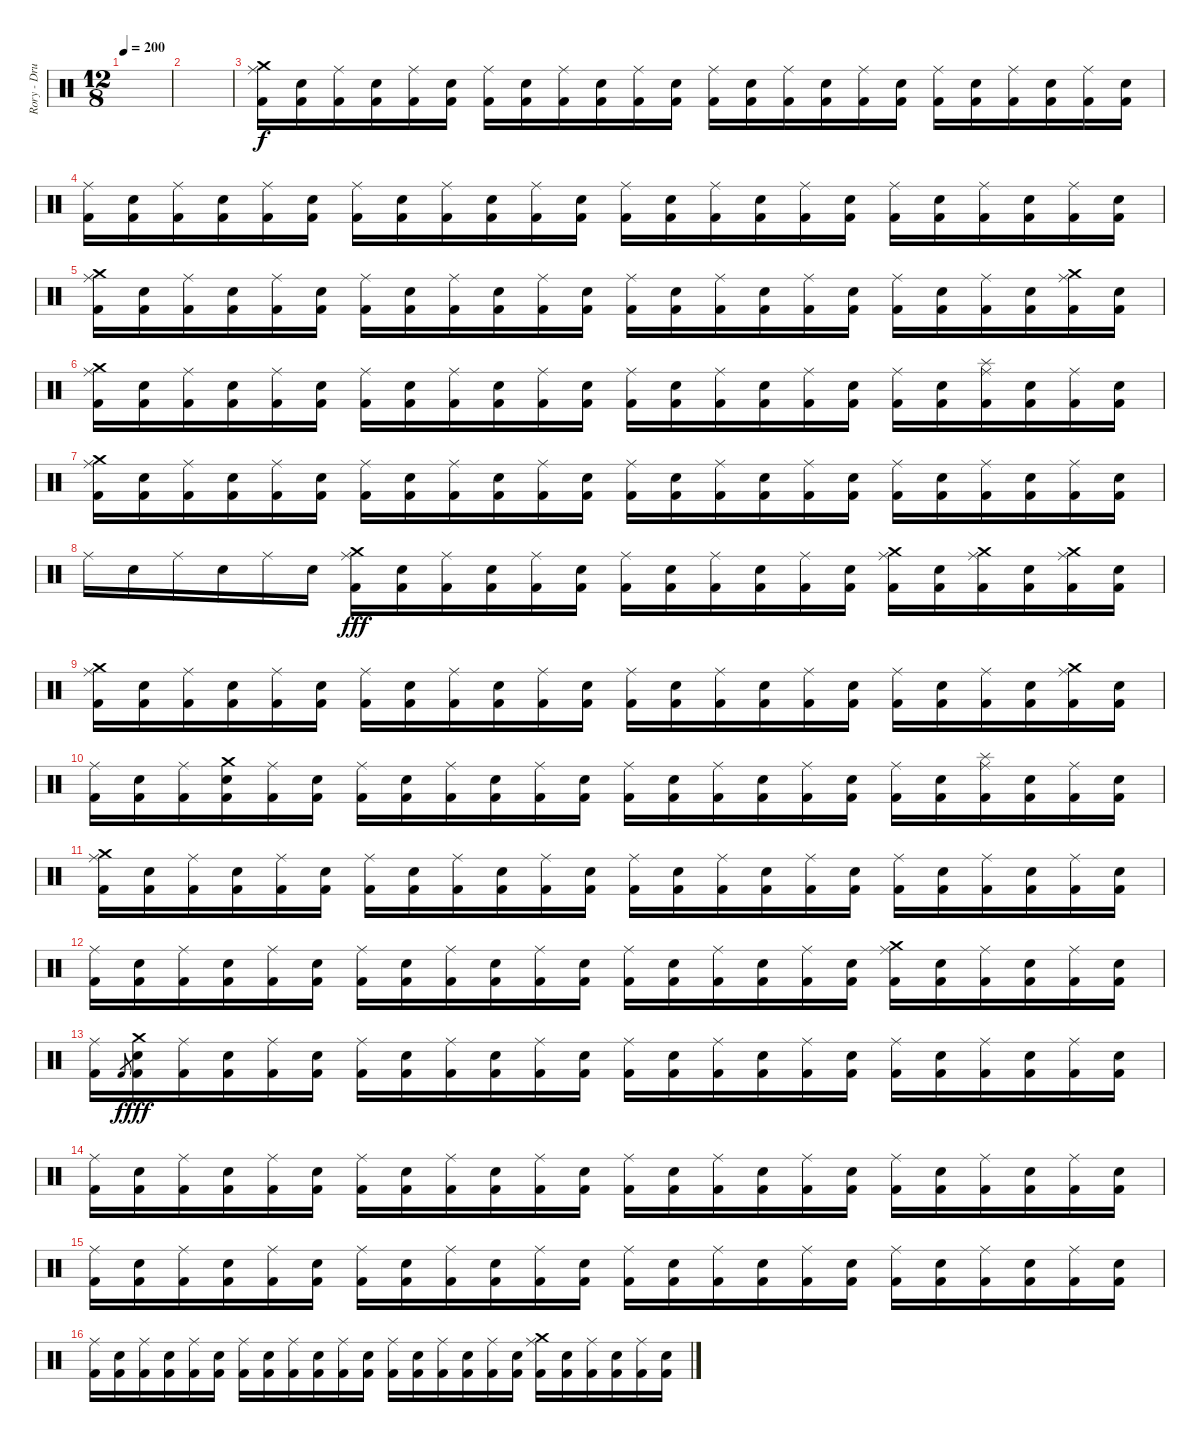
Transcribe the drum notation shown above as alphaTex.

\track ("Rory - Drums" "Rory - Dru") {instrument percussion}
\staff {score}
\articulation defaults
\ts (12 8)
\tempo 200
\clef neutral
\ks c
|
|
("Kick (hit) 2" "Crash medium (hit)" "Ride (middle)").16 ("Kick (hit) 2" "Electric Snare (hit)").16 ("Kick (hit) 2" "Ride (middle)").16 ("Kick (hit) 2" "Electric Snare (hit)").16 ("Kick (hit) 2" "Ride (middle)").16 ("Kick (hit) 2" "Electric Snare (hit)").16 ("Kick (hit) 2" "Ride (middle)").16 ("Kick (hit) 2" "Electric Snare (hit)").16 ("Kick (hit) 2" "Ride (middle)").16 ("Kick (hit) 2" "Electric Snare (hit)").16 ("Kick (hit) 2" "Ride (middle)").16 ("Kick (hit) 2" "Electric Snare (hit)").16 ("Kick (hit) 2" "Ride (middle)").16 ("Kick (hit) 2" "Electric Snare (hit)").16 ("Kick (hit) 2" "Ride (middle)").16 ("Kick (hit) 2" "Electric Snare (hit)").16 ("Kick (hit) 2" "Ride (middle)").16 ("Kick (hit) 2" "Electric Snare (hit)").16 ("Kick (hit) 2" "Ride (middle)").16 ("Kick (hit) 2" "Electric Snare (hit)").16 ("Kick (hit) 2" "Ride (middle)").16 ("Kick (hit) 2" "Electric Snare (hit)").16 ("Kick (hit) 2" "Ride (middle)").16 ("Kick (hit) 2" "Electric Snare (hit)").16 |
("Kick (hit) 2" "Ride (middle)").16 ("Kick (hit) 2" "Electric Snare (hit)").16 ("Kick (hit) 2" "Ride (middle)").16 ("Kick (hit) 2" "Electric Snare (hit)").16 ("Kick (hit) 2" "Ride (middle)").16 ("Kick (hit) 2" "Electric Snare (hit)").16 ("Kick (hit) 2" "Ride (middle)").16 ("Kick (hit) 2" "Electric Snare (hit)").16 ("Kick (hit) 2" "Ride (middle)").16 ("Kick (hit) 2" "Electric Snare (hit)").16 ("Kick (hit) 2" "Ride (middle)").16 ("Kick (hit) 2" "Electric Snare (hit)").16 ("Kick (hit) 2" "Ride (middle)").16 ("Kick (hit) 2" "Electric Snare (hit)").16 ("Kick (hit) 2" "Ride (middle)").16 ("Kick (hit) 2" "Electric Snare (hit)").16 ("Kick (hit) 2" "Ride (middle)").16 ("Kick (hit) 2" "Electric Snare (hit)").16 ("Kick (hit) 2" "Ride (middle)").16 ("Kick (hit) 2" "Electric Snare (hit)").16 ("Kick (hit) 2" "Ride (middle)").16 ("Kick (hit) 2" "Electric Snare (hit)").16 ("Kick (hit) 2" "Ride (middle)").16 ("Kick (hit) 2" "Electric Snare (hit)").16 |
("Kick (hit) 2" "Crash medium (hit)" "Ride (middle)").16 ("Kick (hit) 2" "Electric Snare (hit)").16 ("Kick (hit) 2" "Ride (middle)").16 ("Kick (hit) 2" "Electric Snare (hit)").16 ("Kick (hit) 2" "Ride (middle)").16 ("Kick (hit) 2" "Electric Snare (hit)").16 ("Kick (hit) 2" "Ride (middle)").16 ("Kick (hit) 2" "Electric Snare (hit)").16 ("Kick (hit) 2" "Ride (middle)").16 ("Kick (hit) 2" "Electric Snare (hit)").16 ("Kick (hit) 2" "Ride (middle)").16 ("Kick (hit) 2" "Electric Snare (hit)").16 ("Kick (hit) 2" "Ride (middle)").16 ("Kick (hit) 2" "Electric Snare (hit)").16 ("Kick (hit) 2" "Ride (middle)").16 ("Kick (hit) 2" "Electric Snare (hit)").16 ("Kick (hit) 2" "Ride (middle)").16 ("Kick (hit) 2" "Electric Snare (hit)").16 ("Kick (hit) 2" "Ride (middle)").16 ("Kick (hit) 2" "Electric Snare (hit)").16 ("Kick (hit) 2" "Ride (middle)").16 ("Kick (hit) 2" "Electric Snare (hit)").16 ("Kick (hit) 2" "Crash medium (hit)" "Ride (middle)").16 ("Kick (hit) 2" "Electric Snare (hit)").16 |
("Kick (hit) 2" "Crash medium (hit)" "Ride (middle)").16 ("Kick (hit) 2" "Electric Snare (hit)").16 ("Kick (hit) 2" "Ride (middle)").16 ("Kick (hit) 2" "Electric Snare (hit)").16 ("Kick (hit) 2" "Ride (middle)").16 ("Kick (hit) 2" "Electric Snare (hit)").16 ("Kick (hit) 2" "Ride (middle)").16 ("Kick (hit) 2" "Electric Snare (hit)").16 ("Kick (hit) 2" "Ride (middle)").16 ("Kick (hit) 2" "Electric Snare (hit)").16 ("Kick (hit) 2" "Ride (middle)").16 ("Kick (hit) 2" "Electric Snare (hit)").16 ("Kick (hit) 2" "Ride (middle)").16 ("Kick (hit) 2" "Electric Snare (hit)").16 ("Kick (hit) 2" "Ride (middle)").16 ("Kick (hit) 2" "Electric Snare (hit)").16 ("Kick (hit) 2" "Ride (middle)").16 ("Kick (hit) 2" "Electric Snare (hit)").16 ("Kick (hit) 2" "Ride (middle)").16 ("Kick (hit) 2" "Electric Snare (hit)").16 ("Kick (hit) 2" "Splash (hit)" "Ride (middle)").16 ("Kick (hit) 2" "Electric Snare (hit)").16 ("Kick (hit) 2" "Ride (middle)").16 ("Kick (hit) 2" "Electric Snare (hit)").16 |
("Kick (hit) 2" "Crash medium (hit)" "Ride (middle)").16 ("Kick (hit) 2" "Electric Snare (hit)").16 ("Kick (hit) 2" "Ride (middle)").16 ("Kick (hit) 2" "Electric Snare (hit)").16 ("Kick (hit) 2" "Ride (middle)").16 ("Kick (hit) 2" "Electric Snare (hit)").16 ("Kick (hit) 2" "Ride (middle)").16 ("Kick (hit) 2" "Electric Snare (hit)").16 ("Kick (hit) 2" "Ride (middle)").16 ("Kick (hit) 2" "Electric Snare (hit)").16 ("Kick (hit) 2" "Ride (middle)").16 ("Kick (hit) 2" "Electric Snare (hit)").16 ("Kick (hit) 2" "Ride (middle)").16 ("Kick (hit) 2" "Electric Snare (hit)").16 ("Kick (hit) 2" "Ride (middle)").16 ("Kick (hit) 2" "Electric Snare (hit)").16 ("Kick (hit) 2" "Ride (middle)").16 ("Kick (hit) 2" "Electric Snare (hit)").16 ("Kick (hit) 2" "Ride (middle)").16 ("Kick (hit) 2" "Electric Snare (hit)").16 ("Kick (hit) 2" "Ride (middle)").16 ("Kick (hit) 2" "Electric Snare (hit)").16 ("Kick (hit) 2" "Ride (middle)").16 ("Kick (hit) 2" "Electric Snare (hit)").16 |
"Ride (middle)".16{dy f} "Electric Snare (hit)".16 "Ride (middle)".16 "Electric Snare (hit)".16 "Ride (middle)".16 "Electric Snare (hit)".16 ("Kick (hit) 2" "Crash medium (hit)" "Ride (middle)").16{dy fff} ("Kick (hit) 2" "Electric Snare (hit)").16 ("Kick (hit) 2" "Ride (middle)").16 ("Kick (hit) 2" "Electric Snare (hit)").16 ("Kick (hit) 2" "Ride (middle)").16 ("Kick (hit) 2" "Electric Snare (hit)").16 ("Kick (hit) 2" "Ride (middle)").16 ("Kick (hit) 2" "Electric Snare (hit)").16 ("Kick (hit) 2" "Ride (middle)").16 ("Kick (hit) 2" "Electric Snare (hit)").16 ("Kick (hit) 2" "Ride (middle)").16 ("Kick (hit) 2" "Electric Snare (hit)").16 ("Kick (hit) 2" "Crash medium (hit)" "Ride (middle)").16 ("Kick (hit) 2" "Electric Snare (hit)").16 ("Kick (hit) 2" "Crash medium (hit)" "Ride (middle)").16 ("Kick (hit) 2" "Electric Snare (hit)").16 ("Kick (hit) 2" "Crash medium (hit)" "Ride (middle)").16 ("Kick (hit) 2" "Electric Snare (hit)").16 |
("Kick (hit) 2" "Crash medium (hit)" "Ride (middle)").16 ("Kick (hit) 2" "Electric Snare (hit)").16 ("Kick (hit) 2" "Ride (middle)").16 ("Kick (hit) 2" "Electric Snare (hit)").16 ("Kick (hit) 2" "Ride (middle)").16 ("Kick (hit) 2" "Electric Snare (hit)").16 ("Kick (hit) 2" "Ride (middle)").16 ("Kick (hit) 2" "Electric Snare (hit)").16 ("Kick (hit) 2" "Ride (middle)").16 ("Kick (hit) 2" "Electric Snare (hit)").16 ("Kick (hit) 2" "Ride (middle)").16 ("Kick (hit) 2" "Electric Snare (hit)").16 ("Kick (hit) 2" "Ride (middle)").16 ("Kick (hit) 2" "Electric Snare (hit)").16 ("Kick (hit) 2" "Ride (middle)").16 ("Kick (hit) 2" "Electric Snare (hit)").16 ("Kick (hit) 2" "Ride (middle)").16 ("Kick (hit) 2" "Electric Snare (hit)").16 ("Kick (hit) 2" "Ride (middle)").16 ("Kick (hit) 2" "Electric Snare (hit)").16 ("Kick (hit) 2" "Ride (middle)").16 ("Kick (hit) 2" "Electric Snare (hit)").16 ("Kick (hit) 2" "Crash medium (hit)" "Ride (middle)").16 ("Kick (hit) 2" "Electric Snare (hit)").16 |
("Kick (hit) 2" "Ride (middle)").16 ("Kick (hit) 2" "Electric Snare (hit)").16 ("Kick (hit) 2" "Ride (middle)").16 ("Kick (hit) 2" "Crash medium (hit)" "Electric Snare (hit)").16 ("Kick (hit) 2" "Ride (middle)").16 ("Kick (hit) 2" "Electric Snare (hit)").16 ("Kick (hit) 2" "Ride (middle)").16 ("Kick (hit) 2" "Electric Snare (hit)").16 ("Kick (hit) 2" "Ride (middle)").16 ("Kick (hit) 2" "Electric Snare (hit)").16 ("Kick (hit) 2" "Ride (middle)").16 ("Kick (hit) 2" "Electric Snare (hit)").16 ("Kick (hit) 2" "Ride (middle)").16 ("Kick (hit) 2" "Electric Snare (hit)").16 ("Kick (hit) 2" "Ride (middle)").16 ("Kick (hit) 2" "Electric Snare (hit)").16 ("Kick (hit) 2" "Ride (middle)").16 ("Kick (hit) 2" "Electric Snare (hit)").16 ("Kick (hit) 2" "Ride (middle)").16 ("Kick (hit) 2" "Electric Snare (hit)").16 ("Kick (hit) 2" "Splash (hit)" "Ride (middle)").16 ("Kick (hit) 2" "Electric Snare (hit)").16 ("Kick (hit) 2" "Ride (middle)").16 ("Kick (hit) 2" "Electric Snare (hit)").16 |
("Kick (hit) 2" "Crash medium (hit)" "Ride (middle)").16 ("Kick (hit) 2" "Electric Snare (hit)").16 ("Kick (hit) 2" "Ride (middle)").16 ("Kick (hit) 2" "Electric Snare (hit)").16 ("Kick (hit) 2" "Ride (middle)").16 ("Kick (hit) 2" "Electric Snare (hit)").16 ("Kick (hit) 2" "Ride (middle)").16 ("Kick (hit) 2" "Electric Snare (hit)").16 ("Kick (hit) 2" "Ride (middle)").16 ("Kick (hit) 2" "Electric Snare (hit)").16 ("Kick (hit) 2" "Ride (middle)").16 ("Kick (hit) 2" "Electric Snare (hit)").16 ("Kick (hit) 2" "Ride (middle)").16 ("Kick (hit) 2" "Electric Snare (hit)").16 ("Kick (hit) 2" "Ride (middle)").16 ("Kick (hit) 2" "Electric Snare (hit)").16 ("Kick (hit) 2" "Ride (middle)").16 ("Kick (hit) 2" "Electric Snare (hit)").16 ("Kick (hit) 2" "Ride (middle)").16 ("Kick (hit) 2" "Electric Snare (hit)").16 ("Kick (hit) 2" "Ride (middle)").16 ("Kick (hit) 2" "Electric Snare (hit)").16 ("Kick (hit) 2" "Ride (middle)").16 ("Kick (hit) 2" "Electric Snare (hit)").16 |
("Kick (hit) 2" "Ride (middle)").16 ("Kick (hit) 2" "Electric Snare (hit)").16 ("Kick (hit) 2" "Ride (middle)").16 ("Kick (hit) 2" "Electric Snare (hit)").16 ("Kick (hit) 2" "Ride (middle)").16 ("Kick (hit) 2" "Electric Snare (hit)").16 ("Kick (hit) 2" "Ride (middle)").16 ("Kick (hit) 2" "Electric Snare (hit)").16 ("Kick (hit) 2" "Ride (middle)").16 ("Kick (hit) 2" "Electric Snare (hit)").16 ("Kick (hit) 2" "Ride (middle)").16 ("Kick (hit) 2" "Electric Snare (hit)").16 ("Kick (hit) 2" "Ride (middle)").16 ("Kick (hit) 2" "Electric Snare (hit)").16 ("Kick (hit) 2" "Ride (middle)").16 ("Kick (hit) 2" "Electric Snare (hit)").16 ("Kick (hit) 2" "Ride (middle)").16 ("Kick (hit) 2" "Electric Snare (hit)").16 ("Kick (hit) 2" "Crash medium (hit)" "Ride (middle)").16 ("Kick (hit) 2" "Electric Snare (hit)").16 ("Kick (hit) 2" "Ride (middle)").16 ("Kick (hit) 2" "Electric Snare (hit)").16 ("Kick (hit) 2" "Ride (middle)").16 ("Kick (hit) 2" "Electric Snare (hit)").16 |
("Kick (hit) 2" "Ride (middle)").16 "Kick (hit) 2".8{gr dy f} ("Kick (hit) 2" "Crash medium (hit)" "Electric Snare (hit)").16{dy fff} ("Kick (hit) 2" "Ride (middle)").16 ("Kick (hit) 2" "Electric Snare (hit)").16 ("Kick (hit) 2" "Ride (middle)").16 ("Kick (hit) 2" "Electric Snare (hit)").16 ("Kick (hit) 2" "Ride (middle)").16 ("Kick (hit) 2" "Electric Snare (hit)").16 ("Kick (hit) 2" "Ride (middle)").16 ("Kick (hit) 2" "Electric Snare (hit)").16 ("Kick (hit) 2" "Ride (middle)").16 ("Kick (hit) 2" "Electric Snare (hit)").16 ("Kick (hit) 2" "Ride (middle)").16 ("Kick (hit) 2" "Electric Snare (hit)").16 ("Kick (hit) 2" "Ride (middle)").16 ("Kick (hit) 2" "Electric Snare (hit)").16 ("Kick (hit) 2" "Ride (middle)").16 ("Kick (hit) 2" "Electric Snare (hit)").16 ("Kick (hit) 2" "Ride (middle)").16 ("Kick (hit) 2" "Electric Snare (hit)").16 ("Kick (hit) 2" "Ride (middle)").16 ("Kick (hit) 2" "Electric Snare (hit)").16 ("Kick (hit) 2" "Ride (middle)").16 ("Kick (hit) 2" "Electric Snare (hit)").16 |
("Kick (hit) 2" "Ride (middle)").16 ("Kick (hit) 2" "Electric Snare (hit)").16 ("Kick (hit) 2" "Ride (middle)").16 ("Kick (hit) 2" "Electric Snare (hit)").16 ("Kick (hit) 2" "Ride (middle)").16 ("Kick (hit) 2" "Electric Snare (hit)").16 ("Kick (hit) 2" "Ride (middle)").16 ("Kick (hit) 2" "Electric Snare (hit)").16 ("Kick (hit) 2" "Ride (middle)").16 ("Kick (hit) 2" "Electric Snare (hit)").16 ("Kick (hit) 2" "Ride (middle)").16 ("Kick (hit) 2" "Electric Snare (hit)").16 ("Kick (hit) 2" "Ride (middle)").16 ("Kick (hit) 2" "Electric Snare (hit)").16 ("Kick (hit) 2" "Ride (middle)").16 ("Kick (hit) 2" "Electric Snare (hit)").16 ("Kick (hit) 2" "Ride (middle)").16 ("Kick (hit) 2" "Electric Snare (hit)").16 ("Kick (hit) 2" "Ride (middle)").16 ("Kick (hit) 2" "Electric Snare (hit)").16 ("Kick (hit) 2" "Ride (middle)").16 ("Kick (hit) 2" "Electric Snare (hit)").16 ("Kick (hit) 2" "Ride (middle)").16 ("Kick (hit) 2" "Electric Snare (hit)").16 |
("Kick (hit) 2" "Ride (middle)").16 ("Kick (hit) 2" "Electric Snare (hit)").16 ("Kick (hit) 2" "Ride (middle)").16 ("Kick (hit) 2" "Electric Snare (hit)").16 ("Kick (hit) 2" "Ride (middle)").16 ("Kick (hit) 2" "Electric Snare (hit)").16 ("Kick (hit) 2" "Ride (middle)").16 ("Kick (hit) 2" "Electric Snare (hit)").16 ("Kick (hit) 2" "Ride (middle)").16 ("Kick (hit) 2" "Electric Snare (hit)").16 ("Kick (hit) 2" "Ride (middle)").16 ("Kick (hit) 2" "Electric Snare (hit)").16 ("Kick (hit) 2" "Ride (middle)").16 ("Kick (hit) 2" "Electric Snare (hit)").16 ("Kick (hit) 2" "Ride (middle)").16 ("Kick (hit) 2" "Electric Snare (hit)").16 ("Kick (hit) 2" "Ride (middle)").16 ("Kick (hit) 2" "Electric Snare (hit)").16 ("Kick (hit) 2" "Ride (middle)").16 ("Kick (hit) 2" "Electric Snare (hit)").16 ("Kick (hit) 2" "Ride (middle)").16 ("Kick (hit) 2" "Electric Snare (hit)").16 ("Kick (hit) 2" "Ride (middle)").16 ("Kick (hit) 2" "Electric Snare (hit)").16 |
("Kick (hit) 2" "Ride (middle)").16 ("Kick (hit) 2" "Electric Snare (hit)").16 ("Kick (hit) 2" "Ride (middle)").16 ("Kick (hit) 2" "Electric Snare (hit)").16 ("Kick (hit) 2" "Ride (middle)").16 ("Kick (hit) 2" "Electric Snare (hit)").16 ("Kick (hit) 2" "Ride (middle)").16 ("Kick (hit) 2" "Electric Snare (hit)").16 ("Kick (hit) 2" "Ride (middle)").16 ("Kick (hit) 2" "Electric Snare (hit)").16 ("Kick (hit) 2" "Ride (middle)").16 ("Kick (hit) 2" "Electric Snare (hit)").16 ("Kick (hit) 2" "Ride (middle)").16 ("Kick (hit) 2" "Electric Snare (hit)").16 ("Kick (hit) 2" "Ride (middle)").16 ("Kick (hit) 2" "Electric Snare (hit)").16 ("Kick (hit) 2" "Ride (middle)").16 ("Kick (hit) 2" "Electric Snare (hit)").16 ("Kick (hit) 2" "Crash medium (hit)" "Ride (middle)").16 ("Kick (hit) 2" "Electric Snare (hit)").16 ("Kick (hit) 2" "Ride (middle)").16 ("Kick (hit) 2" "Electric Snare (hit)").16 ("Kick (hit) 2" "Ride (middle)").16 ("Kick (hit) 2" "Electric Snare (hit)").16
